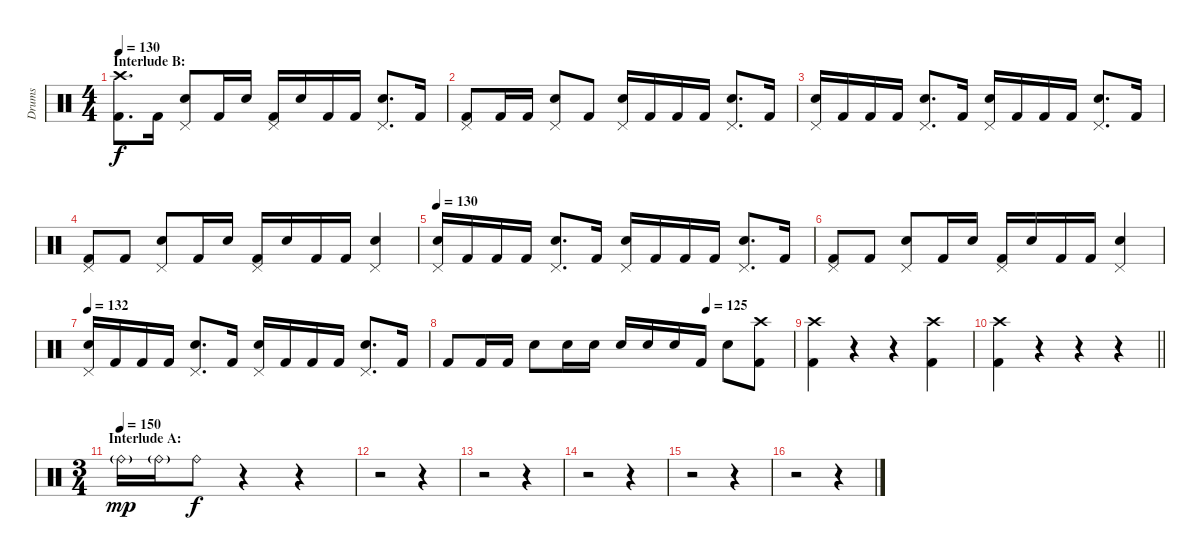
\track ("Drums" "Drums") {instrument percussion}
\staff {score}
\articulation defaults
\ts (4 4)
\section ("" "Interlude B:")
\tempo 130
\clef neutral
\ks c
("Crash high (hit)" "Kick (hit) 2").8{d dy f} "Kick (hit) 2".16 ("Pedal Hi-Hat (hit)" "Electric Snare (hit)").8 "Kick (hit) 2".16 "Electric Snare (hit)".16 ("Pedal Hi-Hat (hit)" "Kick (hit) 2").16 "Electric Snare (hit)".16 "Kick (hit) 2".16 "Kick (hit) 2".16 ("Pedal Hi-Hat (hit)" "Electric Snare (hit)").8{d} "Kick (hit) 2".16 |
("Pedal Hi-Hat (hit)" "Kick (hit) 2").8 "Kick (hit) 2".16 "Kick (hit) 2".16 ("Pedal Hi-Hat (hit)" "Electric Snare (hit)").8 "Kick (hit) 2".8 ("Pedal Hi-Hat (hit)" "Electric Snare (hit)").16 "Kick (hit) 2".16 "Kick (hit) 2".16 "Kick (hit) 2".16 ("Pedal Hi-Hat (hit)" "Electric Snare (hit)").8{d} "Kick (hit) 2".16 |
("Pedal Hi-Hat (hit)" "Electric Snare (hit)").16 "Kick (hit) 2".16 "Kick (hit) 2".16 "Kick (hit) 2".16 ("Pedal Hi-Hat (hit)" "Electric Snare (hit)").8{d} "Kick (hit) 2".16 ("Pedal Hi-Hat (hit)" "Electric Snare (hit)").16 "Kick (hit) 2".16 "Kick (hit) 2".16 "Kick (hit) 2".16 ("Pedal Hi-Hat (hit)" "Electric Snare (hit)").8{d} "Kick (hit) 2".16 |
("Pedal Hi-Hat (hit)" "Kick (hit) 2").8 "Kick (hit) 2".8 ("Pedal Hi-Hat (hit)" "Electric Snare (hit)").8 "Kick (hit) 2".16 "Electric Snare (hit)".16 ("Pedal Hi-Hat (hit)" "Kick (hit) 2").16 "Electric Snare (hit)".16 "Kick (hit) 2".16 "Kick (hit) 2".16 ("Pedal Hi-Hat (hit)" "Electric Snare (hit)").4 |
\tempo 130
("Pedal Hi-Hat (hit)" "Electric Snare (hit)").16 "Kick (hit) 2".16 "Kick (hit) 2".16 "Kick (hit) 2".16 ("Pedal Hi-Hat (hit)" "Electric Snare (hit)").8{d} "Kick (hit) 2".16 ("Pedal Hi-Hat (hit)" "Electric Snare (hit)").16 "Kick (hit) 2".16 "Kick (hit) 2".16 "Kick (hit) 2".16 ("Pedal Hi-Hat (hit)" "Electric Snare (hit)").8{d} "Kick (hit) 2".16 |
("Pedal Hi-Hat (hit)" "Kick (hit) 2").8 "Kick (hit) 2".8 ("Pedal Hi-Hat (hit)" "Electric Snare (hit)").8 "Kick (hit) 2".16 "Electric Snare (hit)".16 ("Pedal Hi-Hat (hit)" "Kick (hit) 2").16 "Electric Snare (hit)".16 "Kick (hit) 2".16 "Kick (hit) 2".16 ("Pedal Hi-Hat (hit)" "Electric Snare (hit)").4 |
\tempo 132
("Pedal Hi-Hat (hit)" "Electric Snare (hit)").16 "Kick (hit) 2".16 "Kick (hit) 2".16 "Kick (hit) 2".16 ("Pedal Hi-Hat (hit)" "Electric Snare (hit)").8{d} "Kick (hit) 2".16 ("Pedal Hi-Hat (hit)" "Electric Snare (hit)").16 "Kick (hit) 2".16 "Kick (hit) 2".16 "Kick (hit) 2".16 ("Pedal Hi-Hat (hit)" "Electric Snare (hit)").8{d} "Kick (hit) 2".16 |
\tempo (125 0.75)
"Kick (hit) 2".8 "Kick (hit) 2".16 "Kick (hit) 2".16 "Electric Snare (hit)".8 "Electric Snare (hit)".16 "Electric Snare (hit)".16 "Electric Snare (hit)".16 "Electric Snare (hit)".16 "Electric Snare (hit)".16 "Kick (hit) 2".16 "Electric Snare (hit)".8 ("Crash high (hit)" "Kick (hit) 2").8 |
("Crash high (hit)" "Kick (hit) 2").4 r.4 r.4 ("Crash high (hit)" "Kick (hit) 2").4 |
\barLineRight lightlight
("Crash high (hit)" "Kick (hit) 2").4 r.4 r.4 r.4 |
\ts (3 4)
\section ("" "Interlude A:")
\tempo (150)
"Ride (bell)"{g}.16{dy mp} "Ride (bell)"{g}.16 "Ride (bell)".8{dy f} r.4 r.4 |
r.2 r.4 |
r.2 r.4 |
r.2 r.4 |
r.2 r.4 |
r.2 r.4
